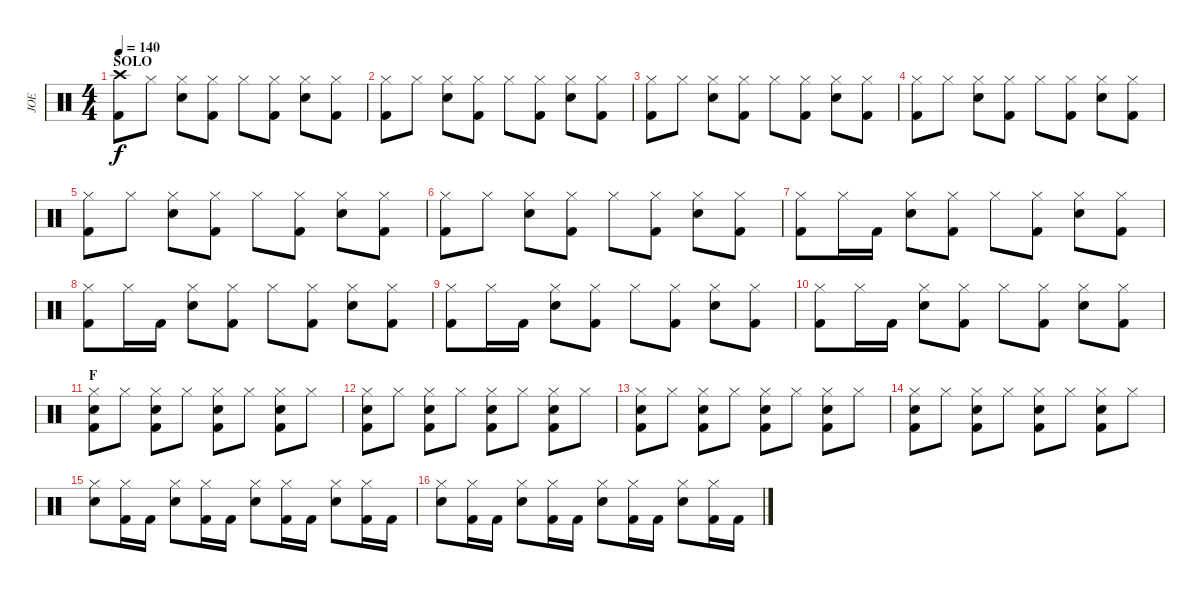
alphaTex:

\track ("JOE" "JOE") {instrument percussion}
\staff {score}
\articulation defaults
\ts (4 4)
\section ("" "SOLO")
\tempo 140
\clef neutral
\ks aminor
("Crash high (hit)" "Kick (hit) 2").8{dy f} "Hi-Hat (closed)".8 ("Hi-Hat (closed)" "Snare (hit) 2").8 ("Hi-Hat (closed)" "Kick (hit) 2").8 "Hi-Hat (closed)".8 ("Hi-Hat (closed)" "Kick (hit) 2").8 ("Hi-Hat (closed)" "Snare (hit) 2").8 ("Hi-Hat (closed)" "Kick (hit) 2").8 |
("Hi-Hat (closed)" "Kick (hit) 2").8 "Hi-Hat (closed)".8 ("Hi-Hat (closed)" "Snare (hit) 2").8 ("Hi-Hat (closed)" "Kick (hit) 2").8 "Hi-Hat (closed)".8 ("Hi-Hat (closed)" "Kick (hit) 2").8 ("Hi-Hat (closed)" "Snare (hit) 2").8 ("Hi-Hat (closed)" "Kick (hit) 2").8 |
("Hi-Hat (closed)" "Kick (hit) 2").8 "Hi-Hat (closed)".8 ("Hi-Hat (closed)" "Snare (hit) 2").8 ("Hi-Hat (closed)" "Kick (hit) 2").8 "Hi-Hat (closed)".8 ("Hi-Hat (closed)" "Kick (hit) 2").8 ("Hi-Hat (closed)" "Snare (hit) 2").8 ("Hi-Hat (closed)" "Kick (hit) 2").8 |
("Hi-Hat (closed)" "Kick (hit) 2").8 "Hi-Hat (closed)".8 ("Hi-Hat (closed)" "Snare (hit) 2").8 ("Hi-Hat (closed)" "Kick (hit) 2").8 "Hi-Hat (closed)".8 ("Hi-Hat (closed)" "Kick (hit) 2").8 ("Hi-Hat (closed)" "Snare (hit) 2").8 ("Hi-Hat (closed)" "Kick (hit) 2").8 |
("Hi-Hat (closed)" "Kick (hit) 2").8 "Hi-Hat (closed)".8 ("Hi-Hat (closed)" "Snare (hit) 2").8 ("Hi-Hat (closed)" "Kick (hit) 2").8 "Hi-Hat (closed)".8 ("Hi-Hat (closed)" "Kick (hit) 2").8 ("Hi-Hat (closed)" "Snare (hit) 2").8 ("Hi-Hat (closed)" "Kick (hit) 2").8 |
("Hi-Hat (closed)" "Kick (hit) 2").8 "Hi-Hat (closed)".8 ("Hi-Hat (closed)" "Snare (hit) 2").8 ("Hi-Hat (closed)" "Kick (hit) 2").8 "Hi-Hat (closed)".8 ("Hi-Hat (closed)" "Kick (hit) 2").8 ("Hi-Hat (closed)" "Snare (hit) 2").8 ("Hi-Hat (closed)" "Kick (hit) 2").8 |
("Hi-Hat (closed)" "Kick (hit) 2").8 "Hi-Hat (closed)".16 "Kick (hit) 2".16 ("Hi-Hat (closed)" "Snare (hit) 2").8 ("Hi-Hat (closed)" "Kick (hit) 2").8 "Hi-Hat (closed)".8 ("Hi-Hat (closed)" "Kick (hit) 2").8 ("Hi-Hat (closed)" "Snare (hit) 2").8 ("Hi-Hat (closed)" "Kick (hit) 2").8 |
("Hi-Hat (closed)" "Kick (hit) 2").8 "Hi-Hat (closed)".16 "Kick (hit) 2".16 ("Hi-Hat (closed)" "Snare (hit) 2").8 ("Hi-Hat (closed)" "Kick (hit) 2").8 "Hi-Hat (closed)".8 ("Hi-Hat (closed)" "Kick (hit) 2").8 ("Hi-Hat (closed)" "Snare (hit) 2").8 ("Hi-Hat (closed)" "Kick (hit) 2").8 |
("Hi-Hat (closed)" "Kick (hit) 2").8 "Hi-Hat (closed)".16 "Kick (hit) 2".16 ("Hi-Hat (closed)" "Snare (hit) 2").8 ("Hi-Hat (closed)" "Kick (hit) 2").8 "Hi-Hat (closed)".8 ("Hi-Hat (closed)" "Kick (hit) 2").8 ("Hi-Hat (closed)" "Snare (hit) 2").8 ("Hi-Hat (closed)" "Kick (hit) 2").8 |
("Hi-Hat (closed)" "Kick (hit) 2").8 "Hi-Hat (closed)".16 "Kick (hit) 2".16 ("Hi-Hat (closed)" "Snare (hit) 2").8 ("Hi-Hat (closed)" "Kick (hit) 2").8 "Hi-Hat (closed)".8 ("Hi-Hat (closed)" "Kick (hit) 2").8 ("Hi-Hat (closed)" "Snare (hit) 2").8 ("Hi-Hat (closed)" "Kick (hit) 2").8 |
\section ("" "F")
("Hi-Hat (closed)" "Snare (hit) 2" "Kick (hit) 2").8 "Hi-Hat (closed)".8 ("Hi-Hat (closed)" "Snare (hit) 2" "Kick (hit) 2").8 "Hi-Hat (closed)".8 ("Hi-Hat (closed)" "Snare (hit) 2" "Kick (hit) 2").8 "Hi-Hat (closed)".8 ("Hi-Hat (closed)" "Snare (hit) 2" "Kick (hit) 2").8 "Hi-Hat (closed)".8 |
("Hi-Hat (closed)" "Snare (hit) 2" "Kick (hit) 2").8 "Hi-Hat (closed)".8 ("Hi-Hat (closed)" "Snare (hit) 2" "Kick (hit) 2").8 "Hi-Hat (closed)".8 ("Hi-Hat (closed)" "Snare (hit) 2" "Kick (hit) 2").8 "Hi-Hat (closed)".8 ("Hi-Hat (closed)" "Snare (hit) 2" "Kick (hit) 2").8 "Hi-Hat (closed)".8 |
("Hi-Hat (closed)" "Snare (hit) 2" "Kick (hit) 2").8 "Hi-Hat (closed)".8 ("Hi-Hat (closed)" "Snare (hit) 2" "Kick (hit) 2").8 "Hi-Hat (closed)".8 ("Hi-Hat (closed)" "Snare (hit) 2" "Kick (hit) 2").8 "Hi-Hat (closed)".8 ("Hi-Hat (closed)" "Snare (hit) 2" "Kick (hit) 2").8 "Hi-Hat (closed)".8 |
("Hi-Hat (closed)" "Snare (hit) 2" "Kick (hit) 2").8 "Hi-Hat (closed)".8 ("Hi-Hat (closed)" "Snare (hit) 2" "Kick (hit) 2").8 "Hi-Hat (closed)".8 ("Hi-Hat (closed)" "Snare (hit) 2" "Kick (hit) 2").8 "Hi-Hat (closed)".8 ("Hi-Hat (closed)" "Snare (hit) 2" "Kick (hit) 2").8 "Hi-Hat (closed)".8 |
("Hi-Hat (closed)" "Snare (hit) 2").8 ("Hi-Hat (closed)" "Kick (hit) 2").16 "Kick (hit) 2".16 ("Hi-Hat (closed)" "Snare (hit) 2").8 ("Hi-Hat (closed)" "Kick (hit) 2").16 "Kick (hit) 2".16 ("Hi-Hat (closed)" "Snare (hit) 2").8 ("Hi-Hat (closed)" "Kick (hit) 2").16 "Kick (hit) 2".16 ("Hi-Hat (closed)" "Snare (hit) 2").8 ("Hi-Hat (closed)" "Kick (hit) 2").16 "Kick (hit) 2".16 |
("Hi-Hat (closed)" "Snare (hit) 2").8 ("Hi-Hat (closed)" "Kick (hit) 2").16 "Kick (hit) 2".16 ("Hi-Hat (closed)" "Snare (hit) 2").8 ("Hi-Hat (closed)" "Kick (hit) 2").16 "Kick (hit) 2".16 ("Hi-Hat (closed)" "Snare (hit) 2").8 ("Hi-Hat (closed)" "Kick (hit) 2").16 "Kick (hit) 2".16 ("Hi-Hat (closed)" "Snare (hit) 2").8 ("Hi-Hat (closed)" "Kick (hit) 2").16 "Kick (hit) 2".16
